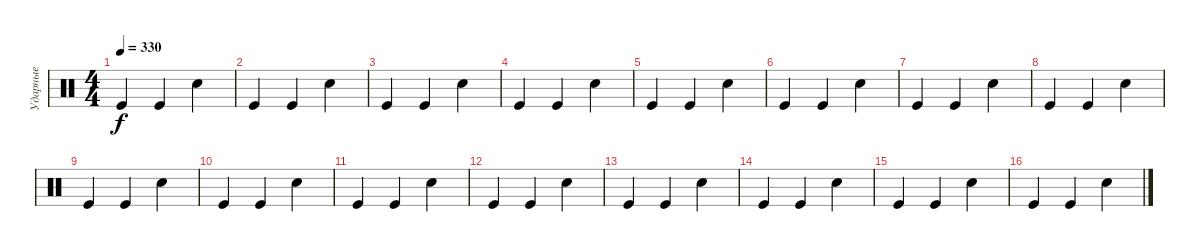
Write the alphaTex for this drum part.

\track ("Ударные" "Ударные") {instrument percussion}
\staff {score}
\articulation defaults
\ts (4 4)
\tempo 330
\clef neutral
\ks c "Kick (hit)".4{dy f} "Kick (hit)".4 "Snare (hit) 2".4
|
"Kick (hit)".4 "Kick (hit)".4 "Snare (hit) 2".4 |
"Kick (hit)".4 "Kick (hit)".4 "Snare (hit) 2".4 |
"Kick (hit)".4 "Kick (hit)".4 "Snare (hit) 2".4 |
"Kick (hit)".4 "Kick (hit)".4 "Snare (hit) 2".4 |
"Kick (hit)".4 "Kick (hit)".4 "Snare (hit) 2".4 |
"Kick (hit)".4 "Kick (hit)".4 "Snare (hit) 2".4 |
"Kick (hit)".4 "Kick (hit)".4 "Snare (hit) 2".4 |
"Kick (hit)".4 "Kick (hit)".4 "Snare (hit) 2".4 |
"Kick (hit)".4 "Kick (hit)".4 "Snare (hit) 2".4 |
"Kick (hit)".4 "Kick (hit)".4 "Snare (hit) 2".4 |
"Kick (hit)".4 "Kick (hit)".4 "Snare (hit) 2".4 |
"Kick (hit)".4 "Kick (hit)".4 "Snare (hit) 2".4 |
"Kick (hit)".4 "Kick (hit)".4 "Snare (hit) 2".4 |
"Kick (hit)".4 "Kick (hit)".4 "Snare (hit) 2".4 |
"Kick (hit)".4 "Kick (hit)".4 "Snare (hit) 2".4
